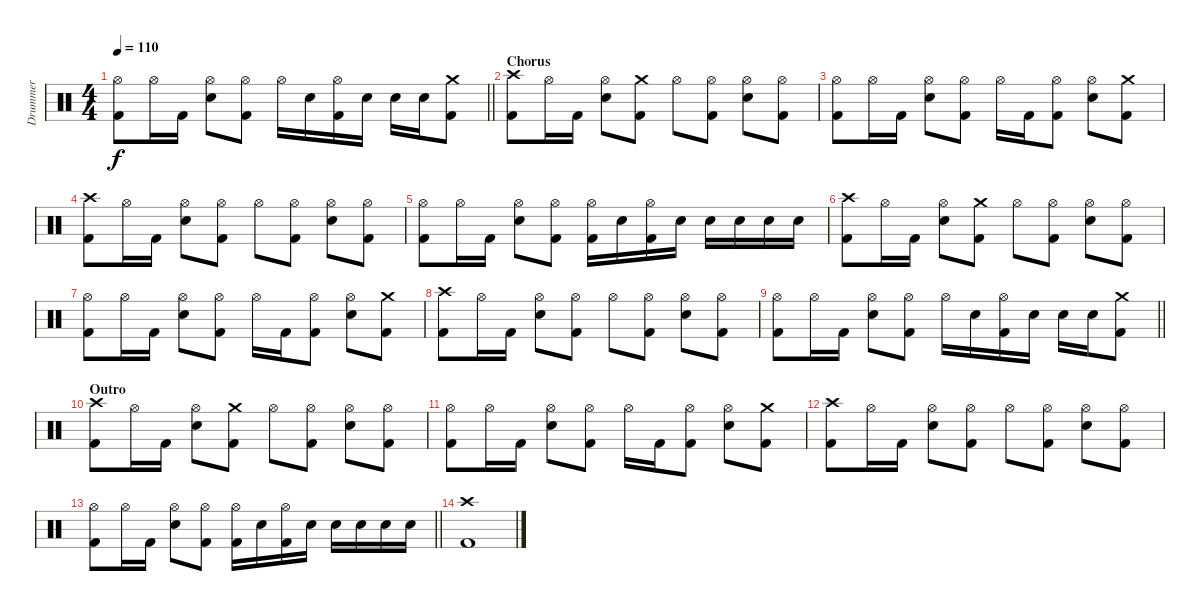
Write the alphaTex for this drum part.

\track ("Drummer" "Drummer") {instrument percussion}
\staff {score}
\articulation defaults
\ts (4 4)
\tempo 110
\clef neutral
\barLineRight lightlight
\ks c
("Hi-Hat (open)" "Kick (hit) 2").8{dy f} "Hi-Hat (open)".16 "Kick (hit) 2".16 ("Hi-Hat (open)" "Electric Snare (hit)").8 ("Hi-Hat (open)" "Kick (hit) 2").8 "Hi-Hat (open)".16 "Electric Snare (hit)".16 ("Hi-Hat (open)" "Kick (hit) 2").16 "Electric Snare (hit)".16 "Electric Snare (hit)".16 "Electric Snare (hit)".16 ("Crash medium (hit)" "Kick (hit) 2").8 |
\section ("" "Chorus")
("Crash high (hit)" "Kick (hit) 2").8 "Hi-Hat (open)".16 "Kick (hit) 2".16 ("Hi-Hat (open)" "Electric Snare (hit)").8 ("Crash medium (hit)" "Kick (hit) 2").8 "Hi-Hat (open)".8 ("Hi-Hat (open)" "Kick (hit) 2").8 ("Hi-Hat (open)" "Electric Snare (hit)").8 ("Hi-Hat (open)" "Kick (hit) 2").8 |
("Hi-Hat (open)" "Kick (hit) 2").8 "Hi-Hat (open)".16 "Kick (hit) 2".16 ("Hi-Hat (open)" "Electric Snare (hit)").8 ("Hi-Hat (open)" "Kick (hit) 2").8 "Hi-Hat (open)".16 "Kick (hit) 2".16 ("Hi-Hat (open)" "Kick (hit) 2").8 ("Hi-Hat (open)" "Electric Snare (hit)").8 ("Crash medium (hit)" "Kick (hit) 2").8 |
("Crash high (hit)" "Kick (hit) 2").8 "Hi-Hat (open)".16 "Kick (hit) 2".16 ("Hi-Hat (open)" "Electric Snare (hit)").8 ("Hi-Hat (open)" "Kick (hit) 2").8 "Hi-Hat (open)".8 ("Hi-Hat (open)" "Kick (hit) 2").8 ("Hi-Hat (open)" "Electric Snare (hit)").8 ("Hi-Hat (open)" "Kick (hit) 2").8 |
("Hi-Hat (open)" "Kick (hit) 2").8 "Hi-Hat (open)".16 "Kick (hit) 2".16 ("Hi-Hat (open)" "Electric Snare (hit)").8 ("Hi-Hat (open)" "Kick (hit) 2").8 ("Hi-Hat (open)" "Kick (hit) 2").16 "Electric Snare (hit)".16 ("Hi-Hat (open)" "Kick (hit) 2").16 "Electric Snare (hit)".16 "Electric Snare (hit)".16 "Electric Snare (hit)".16 "Electric Snare (hit)".16 "Electric Snare (hit)".16 |
("Crash high (hit)" "Kick (hit) 2").8 "Hi-Hat (open)".16 "Kick (hit) 2".16 ("Hi-Hat (open)" "Electric Snare (hit)").8 ("Crash medium (hit)" "Kick (hit) 2").8 "Hi-Hat (open)".8 ("Hi-Hat (open)" "Kick (hit) 2").8 ("Hi-Hat (open)" "Electric Snare (hit)").8 ("Hi-Hat (open)" "Kick (hit) 2").8 |
("Hi-Hat (open)" "Kick (hit) 2").8 "Hi-Hat (open)".16 "Kick (hit) 2".16 ("Hi-Hat (open)" "Electric Snare (hit)").8 ("Hi-Hat (open)" "Kick (hit) 2").8 "Hi-Hat (open)".16 "Kick (hit) 2".16 ("Hi-Hat (open)" "Kick (hit) 2").8 ("Hi-Hat (open)" "Electric Snare (hit)").8 ("Crash medium (hit)" "Kick (hit) 2").8 |
("Crash high (hit)" "Kick (hit) 2").8 "Hi-Hat (open)".16 "Kick (hit) 2".16 ("Hi-Hat (open)" "Electric Snare (hit)").8 ("Hi-Hat (open)" "Kick (hit) 2").8 "Hi-Hat (open)".8 ("Hi-Hat (open)" "Kick (hit) 2").8 ("Hi-Hat (open)" "Electric Snare (hit)").8 ("Hi-Hat (open)" "Kick (hit) 2").8 |
\barLineRight lightlight
("Hi-Hat (open)" "Kick (hit) 2").8 "Hi-Hat (open)".16 "Kick (hit) 2".16 ("Hi-Hat (open)" "Electric Snare (hit)").8 ("Hi-Hat (open)" "Kick (hit) 2").8 "Hi-Hat (open)".16 "Electric Snare (hit)".16 ("Hi-Hat (open)" "Kick (hit) 2").16 "Electric Snare (hit)".16 "Electric Snare (hit)".16 "Electric Snare (hit)".16 ("Crash medium (hit)" "Kick (hit) 2").8 |
\section ("" "Outro")
("Crash high (hit)" "Kick (hit) 2").8 "Hi-Hat (open)".16 "Kick (hit) 2".16 ("Hi-Hat (open)" "Electric Snare (hit)").8 ("Crash medium (hit)" "Kick (hit) 2").8 "Hi-Hat (open)".8 ("Hi-Hat (open)" "Kick (hit) 2").8 ("Hi-Hat (open)" "Electric Snare (hit)").8 ("Hi-Hat (open)" "Kick (hit) 2").8 |
("Hi-Hat (open)" "Kick (hit) 2").8 "Hi-Hat (open)".16 "Kick (hit) 2".16 ("Hi-Hat (open)" "Electric Snare (hit)").8 ("Hi-Hat (open)" "Kick (hit) 2").8 "Hi-Hat (open)".16 "Kick (hit) 2".16 ("Hi-Hat (open)" "Kick (hit) 2").8 ("Hi-Hat (open)" "Electric Snare (hit)").8 ("Crash medium (hit)" "Kick (hit) 2").8 |
("Crash high (hit)" "Kick (hit) 2").8 "Hi-Hat (open)".16 "Kick (hit) 2".16 ("Hi-Hat (open)" "Electric Snare (hit)").8 ("Hi-Hat (open)" "Kick (hit) 2").8 "Hi-Hat (open)".8 ("Hi-Hat (open)" "Kick (hit) 2").8 ("Hi-Hat (open)" "Electric Snare (hit)").8 ("Hi-Hat (open)" "Kick (hit) 2").8 |
\barLineRight lightlight
("Hi-Hat (open)" "Kick (hit) 2").8 "Hi-Hat (open)".16 "Kick (hit) 2".16 ("Hi-Hat (open)" "Electric Snare (hit)").8 ("Hi-Hat (open)" "Kick (hit) 2").8 ("Hi-Hat (open)" "Kick (hit) 2").16 "Electric Snare (hit)".16 ("Hi-Hat (open)" "Kick (hit) 2").16 "Electric Snare (hit)".16 "Electric Snare (hit)".16 "Electric Snare (hit)".16 "Electric Snare (hit)".16 "Electric Snare (hit)".16 |
("Crash high (hit)" "Kick (hit) 2").1
